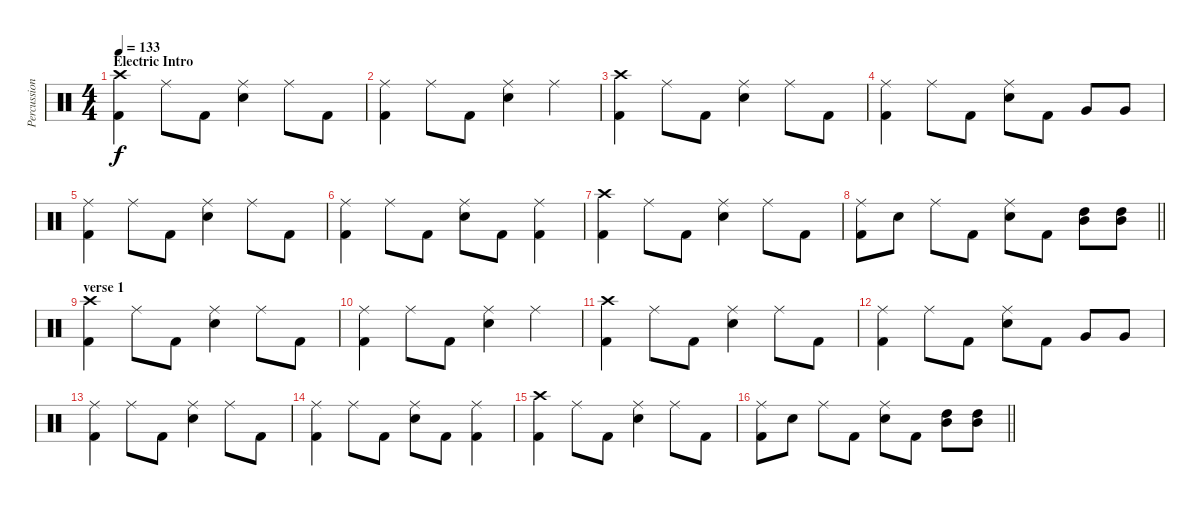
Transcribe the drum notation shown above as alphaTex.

\track ("Percussion" "Percussion") {instrument percussion}
\staff {score}
\articulation defaults
\ts (4 4)
\section ("" "Electric Intro")
\tempo 133
\clef neutral
\ks c
("Crash high (hit)" "Kick (hit) 2").4{dy f} "Ride (middle)".8 "Kick (hit) 2".8 ("Ride (middle)" "Electric Snare (hit)").4 "Ride (middle)".8 "Kick (hit) 2".8 |
("Ride (middle)" "Kick (hit) 2").4 "Ride (middle)".8 "Kick (hit) 2".8 ("Ride (middle)" "Electric Snare (hit)").4 "Ride (middle)".4 |
("Crash high (hit)" "Kick (hit) 2").4 "Ride (middle)".8 "Kick (hit) 2".8 ("Ride (middle)" "Electric Snare (hit)").4 "Ride (middle)".8 "Kick (hit) 2".8 |
("Ride (middle)" "Kick (hit) 2").4 "Ride (middle)".8 "Kick (hit) 2".8 ("Ride (middle)" "Electric Snare (hit)").8 "Kick (hit) 2".8 "Very Low Tom (hit)".8 "Very Low Tom (hit)".8 |
("Ride (middle)" "Kick (hit) 2").4 "Ride (middle)".8 "Kick (hit) 2".8 ("Ride (middle)" "Electric Snare (hit)").4 "Ride (middle)".8 "Kick (hit) 2".8 |
("Ride (middle)" "Kick (hit) 2").4 "Ride (middle)".8 "Kick (hit) 2".8 ("Ride (middle)" "Electric Snare (hit)").8 "Kick (hit) 2".8 ("Ride (middle)" "Kick (hit) 2").4 |
("Crash high (hit)" "Kick (hit) 2").4 "Ride (middle)".8 "Kick (hit) 2".8 ("Ride (middle)" "Electric Snare (hit)").4 "Ride (middle)".8 "Kick (hit) 2".8 |
\barLineRight lightlight
("Ride (middle)" "Kick (hit) 2").8 "Electric Snare (hit)".8 "Ride (middle)".8 "Kick (hit) 2".8 ("Ride (middle)" "Electric Snare (hit)").8 "Kick (hit) 2".8 ("Mid Tom (hit)" "High Tom (hit)").8 ("Mid Tom (hit)" "High Tom (hit)").8 |
\section ("" "verse 1")
("Crash high (hit)" "Kick (hit) 2").4 "Ride (middle)".8 "Kick (hit) 2".8 ("Ride (middle)" "Electric Snare (hit)").4 "Ride (middle)".8 "Kick (hit) 2".8 |
("Ride (middle)" "Kick (hit) 2").4 "Ride (middle)".8 "Kick (hit) 2".8 ("Ride (middle)" "Electric Snare (hit)").4 "Ride (middle)".4 |
("Crash high (hit)" "Kick (hit) 2").4 "Ride (middle)".8 "Kick (hit) 2".8 ("Ride (middle)" "Electric Snare (hit)").4 "Ride (middle)".8 "Kick (hit) 2".8 |
("Ride (middle)" "Kick (hit) 2").4 "Ride (middle)".8 "Kick (hit) 2".8 ("Ride (middle)" "Electric Snare (hit)").8 "Kick (hit) 2".8 "Very Low Tom (hit)".8 "Very Low Tom (hit)".8 |
("Ride (middle)" "Kick (hit) 2").4 "Ride (middle)".8 "Kick (hit) 2".8 ("Ride (middle)" "Electric Snare (hit)").4 "Ride (middle)".8 "Kick (hit) 2".8 |
("Ride (middle)" "Kick (hit) 2").4 "Ride (middle)".8 "Kick (hit) 2".8 ("Ride (middle)" "Electric Snare (hit)").8 "Kick (hit) 2".8 ("Ride (middle)" "Kick (hit) 2").4 |
("Crash high (hit)" "Kick (hit) 2").4 "Ride (middle)".8 "Kick (hit) 2".8 ("Ride (middle)" "Electric Snare (hit)").4 "Ride (middle)".8 "Kick (hit) 2".8 |
\barLineRight lightlight
("Ride (middle)" "Kick (hit) 2").8 "Electric Snare (hit)".8 "Ride (middle)".8 "Kick (hit) 2".8 ("Ride (middle)" "Electric Snare (hit)").8 "Kick (hit) 2".8 ("Mid Tom (hit)" "High Tom (hit)").8 ("Mid Tom (hit)" "High Tom (hit)").8
